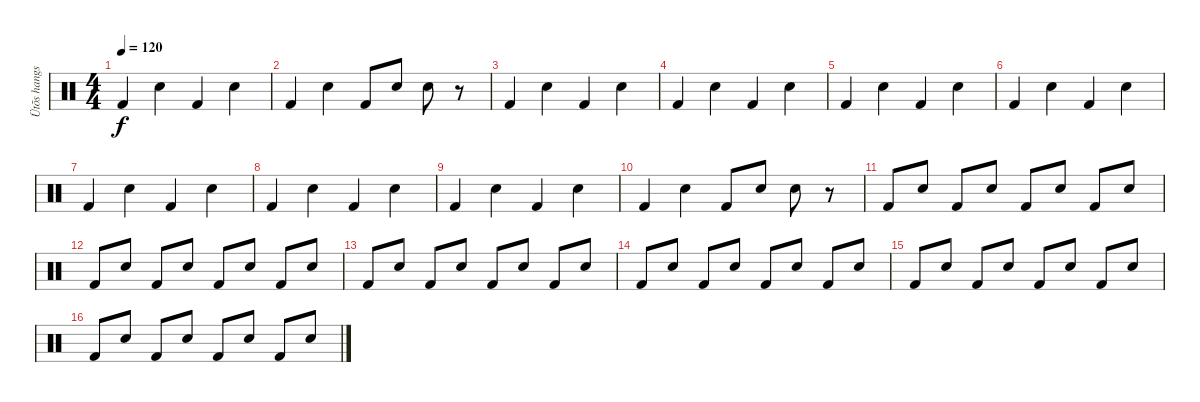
\track ("Ütõs hangszer" "Ütõs hangs") {instrument percussion}
\staff {score}
\articulation defaults
\ts (4 4)
\tempo 120
\clef neutral
\ks c "Kick (hit) 2".4{dy f} "Electric Snare (hit)".4 "Kick (hit) 2".4 "Electric Snare (hit)".4
|
"Kick (hit) 2".4 "Electric Snare (hit)".4 "Kick (hit) 2".8 "Electric Snare (hit)".8 "Electric Snare (hit)".8 r.8 |
"Kick (hit) 2".4 "Electric Snare (hit)".4 "Kick (hit) 2".4 "Electric Snare (hit)".4 |
"Kick (hit) 2".4 "Electric Snare (hit)".4 "Kick (hit) 2".4 "Electric Snare (hit)".4 |
"Kick (hit) 2".4 "Electric Snare (hit)".4 "Kick (hit) 2".4 "Electric Snare (hit)".4 |
"Kick (hit) 2".4 "Electric Snare (hit)".4 "Kick (hit) 2".4 "Electric Snare (hit)".4 |
"Kick (hit) 2".4 "Electric Snare (hit)".4 "Kick (hit) 2".4 "Electric Snare (hit)".4 |
"Kick (hit) 2".4 "Electric Snare (hit)".4 "Kick (hit) 2".4 "Electric Snare (hit)".4 |
"Kick (hit) 2".4 "Electric Snare (hit)".4 "Kick (hit) 2".4 "Electric Snare (hit)".4 |
"Kick (hit) 2".4 "Electric Snare (hit)".4 "Kick (hit) 2".8 "Electric Snare (hit)".8 "Electric Snare (hit)".8 r.8 |
"Kick (hit) 2".8 "Electric Snare (hit)".8 "Kick (hit) 2".8 "Electric Snare (hit)".8 "Kick (hit) 2".8 "Electric Snare (hit)".8 "Kick (hit) 2".8 "Electric Snare (hit)".8 |
"Kick (hit) 2".8 "Electric Snare (hit)".8 "Kick (hit) 2".8 "Electric Snare (hit)".8 "Kick (hit) 2".8 "Electric Snare (hit)".8 "Kick (hit) 2".8 "Electric Snare (hit)".8 |
"Kick (hit) 2".8 "Electric Snare (hit)".8 "Kick (hit) 2".8 "Electric Snare (hit)".8 "Kick (hit) 2".8 "Electric Snare (hit)".8 "Kick (hit) 2".8 "Electric Snare (hit)".8 |
"Kick (hit) 2".8 "Electric Snare (hit)".8 "Kick (hit) 2".8 "Electric Snare (hit)".8 "Kick (hit) 2".8 "Electric Snare (hit)".8 "Kick (hit) 2".8 "Electric Snare (hit)".8 |
"Kick (hit) 2".8 "Electric Snare (hit)".8 "Kick (hit) 2".8 "Electric Snare (hit)".8 "Kick (hit) 2".8 "Electric Snare (hit)".8 "Kick (hit) 2".8 "Electric Snare (hit)".8 |
"Kick (hit) 2".8 "Electric Snare (hit)".8 "Kick (hit) 2".8 "Electric Snare (hit)".8 "Kick (hit) 2".8 "Electric Snare (hit)".8 "Kick (hit) 2".8 "Electric Snare (hit)".8
